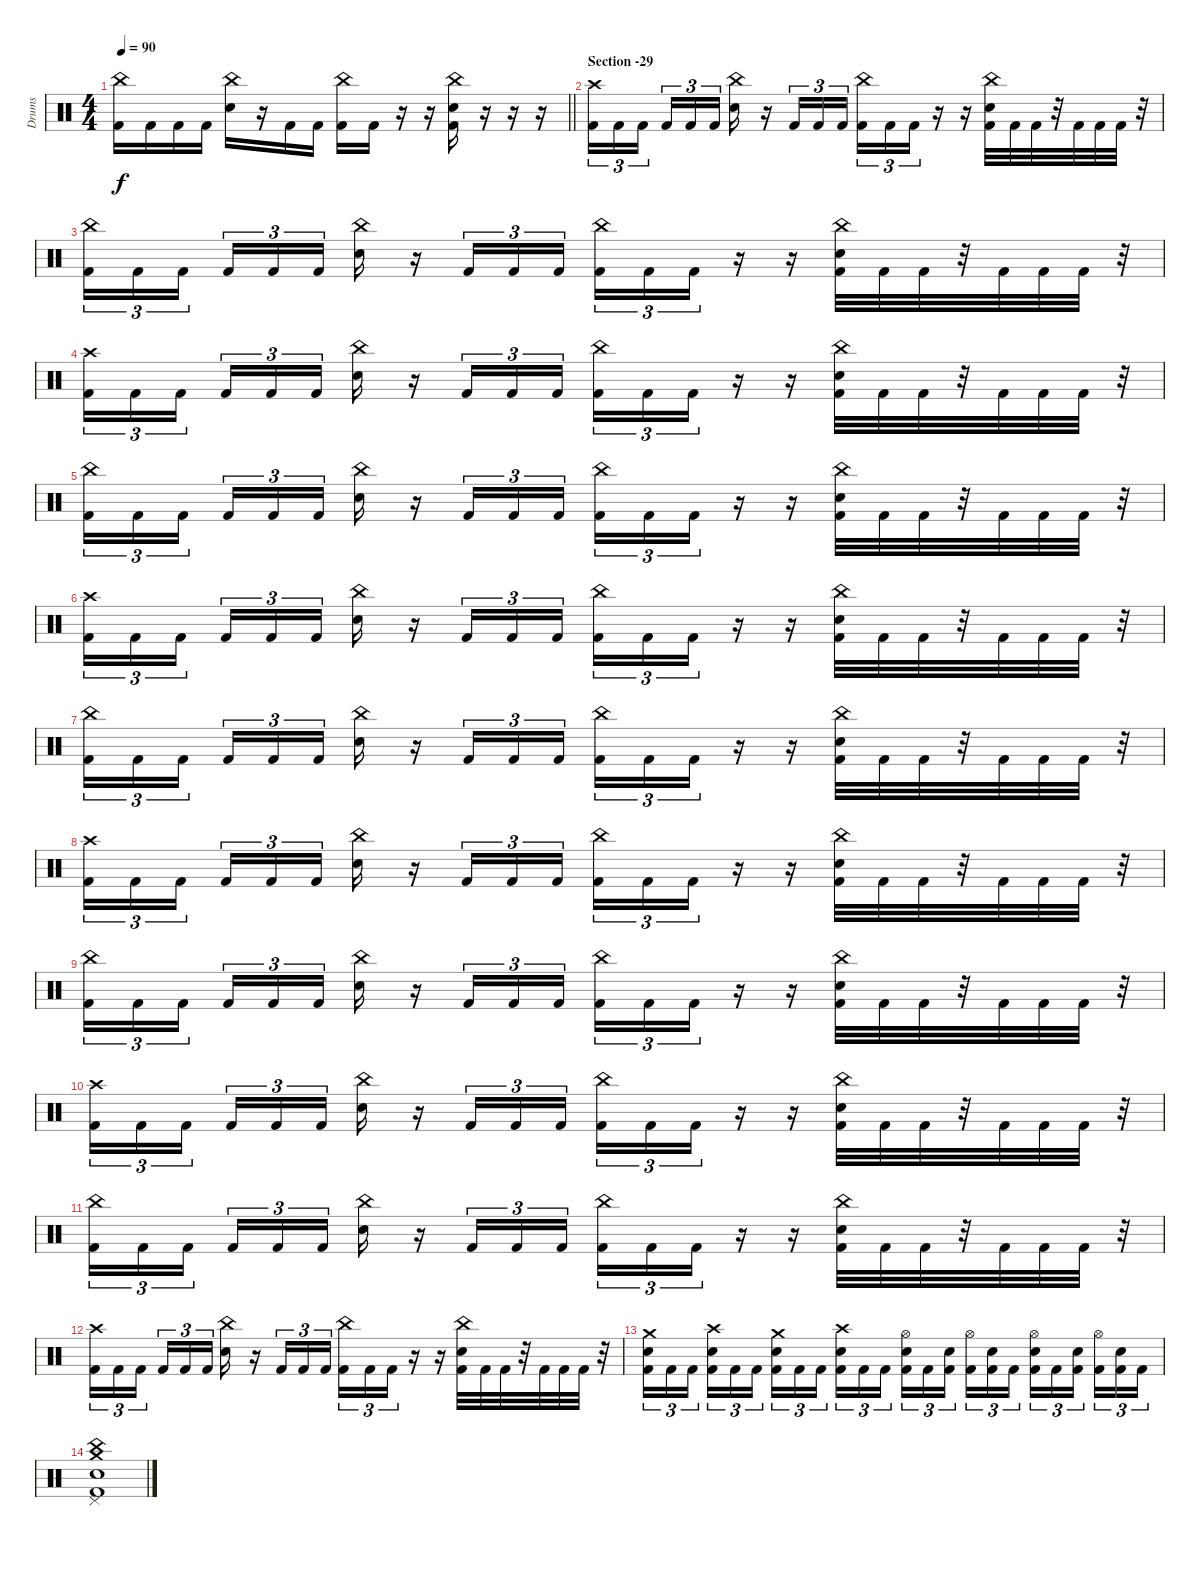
\track ("Drums" "Drums") {instrument percussion}
\staff {score}
\articulation defaults
\ts (4 4)
\tempo 90
\clef neutral
\barLineRight lightlight
\ks c
("China (hit)" "Kick (hit) 2").16{dy f} "Kick (hit) 2".16 "Kick (hit) 2".16 "Kick (hit) 2".16 ("China (hit)" "Snare (hit) 2").16 r.16 "Kick (hit) 2".16 "Kick (hit) 2".16 ("China (hit)" "Kick (hit) 2").16 "Kick (hit) 2".16 r.16 r.16 ("China (hit)" "Snare (hit) 2" "Kick (hit) 2").16 r.16 r.16 r.16 |
\section ("" "Section -29")
("Crash high (hit)" "Kick (hit) 2").16{tu (3 2)} "Kick (hit) 2".16{tu (3 2)} "Kick (hit) 2".16{tu (3 2) beam splitsecondary} "Kick (hit) 2".16{tu (3 2)} "Kick (hit) 2".16{tu (3 2)} "Kick (hit) 2".16{tu (3 2)} ("China (hit)" "Snare (hit) 2").16 r.16 "Kick (hit) 2".16{tu (3 2)} "Kick (hit) 2".16{tu (3 2)} "Kick (hit) 2".16{tu (3 2)} ("China (hit)" "Kick (hit) 2").16{tu (3 2)} "Kick (hit) 2".16{tu (3 2)} "Kick (hit) 2".16{tu (3 2)} r.16 r.16 ("China (hit)" "Snare (hit) 2" "Kick (hit) 2").32 "Kick (hit) 2".32 "Kick (hit) 2".32 r.32 "Kick (hit) 2".32 "Kick (hit) 2".32 "Kick (hit) 2".32 r.32 |
("China (hit)" "Kick (hit) 2").16{tu (3 2)} "Kick (hit) 2".16{tu (3 2)} "Kick (hit) 2".16{tu (3 2) beam splitsecondary} "Kick (hit) 2".16{tu (3 2)} "Kick (hit) 2".16{tu (3 2)} "Kick (hit) 2".16{tu (3 2)} ("China (hit)" "Snare (hit) 2").16 r.16 "Kick (hit) 2".16{tu (3 2)} "Kick (hit) 2".16{tu (3 2)} "Kick (hit) 2".16{tu (3 2)} ("China (hit)" "Kick (hit) 2").16{tu (3 2)} "Kick (hit) 2".16{tu (3 2)} "Kick (hit) 2".16{tu (3 2)} r.16 r.16 ("China (hit)" "Snare (hit) 2" "Kick (hit) 2").32 "Kick (hit) 2".32 "Kick (hit) 2".32 r.32 "Kick (hit) 2".32 "Kick (hit) 2".32 "Kick (hit) 2".32 r.32 |
("Crash high (hit)" "Kick (hit) 2").16{tu (3 2)} "Kick (hit) 2".16{tu (3 2)} "Kick (hit) 2".16{tu (3 2) beam splitsecondary} "Kick (hit) 2".16{tu (3 2)} "Kick (hit) 2".16{tu (3 2)} "Kick (hit) 2".16{tu (3 2)} ("China (hit)" "Snare (hit) 2").16 r.16 "Kick (hit) 2".16{tu (3 2)} "Kick (hit) 2".16{tu (3 2)} "Kick (hit) 2".16{tu (3 2)} ("China (hit)" "Kick (hit) 2").16{tu (3 2)} "Kick (hit) 2".16{tu (3 2)} "Kick (hit) 2".16{tu (3 2)} r.16 r.16 ("China (hit)" "Snare (hit) 2" "Kick (hit) 2").32 "Kick (hit) 2".32 "Kick (hit) 2".32 r.32 "Kick (hit) 2".32 "Kick (hit) 2".32 "Kick (hit) 2".32 r.32 |
("China (hit)" "Kick (hit) 2").16{tu (3 2)} "Kick (hit) 2".16{tu (3 2)} "Kick (hit) 2".16{tu (3 2) beam splitsecondary} "Kick (hit) 2".16{tu (3 2)} "Kick (hit) 2".16{tu (3 2)} "Kick (hit) 2".16{tu (3 2)} ("China (hit)" "Snare (hit) 2").16 r.16 "Kick (hit) 2".16{tu (3 2)} "Kick (hit) 2".16{tu (3 2)} "Kick (hit) 2".16{tu (3 2)} ("China (hit)" "Kick (hit) 2").16{tu (3 2)} "Kick (hit) 2".16{tu (3 2)} "Kick (hit) 2".16{tu (3 2)} r.16 r.16 ("China (hit)" "Snare (hit) 2" "Kick (hit) 2").32 "Kick (hit) 2".32 "Kick (hit) 2".32 r.32 "Kick (hit) 2".32 "Kick (hit) 2".32 "Kick (hit) 2".32 r.32 |
("Crash high (hit)" "Kick (hit) 2").16{tu (3 2)} "Kick (hit) 2".16{tu (3 2)} "Kick (hit) 2".16{tu (3 2) beam splitsecondary} "Kick (hit) 2".16{tu (3 2)} "Kick (hit) 2".16{tu (3 2)} "Kick (hit) 2".16{tu (3 2)} ("China (hit)" "Snare (hit) 2").16 r.16 "Kick (hit) 2".16{tu (3 2)} "Kick (hit) 2".16{tu (3 2)} "Kick (hit) 2".16{tu (3 2)} ("China (hit)" "Kick (hit) 2").16{tu (3 2)} "Kick (hit) 2".16{tu (3 2)} "Kick (hit) 2".16{tu (3 2)} r.16 r.16 ("China (hit)" "Snare (hit) 2" "Kick (hit) 2").32 "Kick (hit) 2".32 "Kick (hit) 2".32 r.32 "Kick (hit) 2".32 "Kick (hit) 2".32 "Kick (hit) 2".32 r.32 |
("China (hit)" "Kick (hit) 2").16{tu (3 2)} "Kick (hit) 2".16{tu (3 2)} "Kick (hit) 2".16{tu (3 2) beam splitsecondary} "Kick (hit) 2".16{tu (3 2)} "Kick (hit) 2".16{tu (3 2)} "Kick (hit) 2".16{tu (3 2)} ("China (hit)" "Snare (hit) 2").16 r.16 "Kick (hit) 2".16{tu (3 2)} "Kick (hit) 2".16{tu (3 2)} "Kick (hit) 2".16{tu (3 2)} ("China (hit)" "Kick (hit) 2").16{tu (3 2)} "Kick (hit) 2".16{tu (3 2)} "Kick (hit) 2".16{tu (3 2)} r.16 r.16 ("China (hit)" "Snare (hit) 2" "Kick (hit) 2").32 "Kick (hit) 2".32 "Kick (hit) 2".32 r.32 "Kick (hit) 2".32 "Kick (hit) 2".32 "Kick (hit) 2".32 r.32 |
("Crash high (hit)" "Kick (hit) 2").16{tu (3 2)} "Kick (hit) 2".16{tu (3 2)} "Kick (hit) 2".16{tu (3 2) beam splitsecondary} "Kick (hit) 2".16{tu (3 2)} "Kick (hit) 2".16{tu (3 2)} "Kick (hit) 2".16{tu (3 2)} ("China (hit)" "Snare (hit) 2").16 r.16 "Kick (hit) 2".16{tu (3 2)} "Kick (hit) 2".16{tu (3 2)} "Kick (hit) 2".16{tu (3 2)} ("China (hit)" "Kick (hit) 2").16{tu (3 2)} "Kick (hit) 2".16{tu (3 2)} "Kick (hit) 2".16{tu (3 2)} r.16 r.16 ("China (hit)" "Snare (hit) 2" "Kick (hit) 2").32 "Kick (hit) 2".32 "Kick (hit) 2".32 r.32 "Kick (hit) 2".32 "Kick (hit) 2".32 "Kick (hit) 2".32 r.32 |
("China (hit)" "Kick (hit) 2").16{tu (3 2)} "Kick (hit) 2".16{tu (3 2)} "Kick (hit) 2".16{tu (3 2) beam splitsecondary} "Kick (hit) 2".16{tu (3 2)} "Kick (hit) 2".16{tu (3 2)} "Kick (hit) 2".16{tu (3 2)} ("China (hit)" "Snare (hit) 2").16 r.16 "Kick (hit) 2".16{tu (3 2)} "Kick (hit) 2".16{tu (3 2)} "Kick (hit) 2".16{tu (3 2)} ("China (hit)" "Kick (hit) 2").16{tu (3 2)} "Kick (hit) 2".16{tu (3 2)} "Kick (hit) 2".16{tu (3 2)} r.16 r.16 ("China (hit)" "Snare (hit) 2" "Kick (hit) 2").32 "Kick (hit) 2".32 "Kick (hit) 2".32 r.32 "Kick (hit) 2".32 "Kick (hit) 2".32 "Kick (hit) 2".32 r.32 |
("Crash high (hit)" "Kick (hit) 2").16{tu (3 2)} "Kick (hit) 2".16{tu (3 2)} "Kick (hit) 2".16{tu (3 2) beam splitsecondary} "Kick (hit) 2".16{tu (3 2)} "Kick (hit) 2".16{tu (3 2)} "Kick (hit) 2".16{tu (3 2)} ("China (hit)" "Snare (hit) 2").16 r.16 "Kick (hit) 2".16{tu (3 2)} "Kick (hit) 2".16{tu (3 2)} "Kick (hit) 2".16{tu (3 2)} ("China (hit)" "Kick (hit) 2").16{tu (3 2)} "Kick (hit) 2".16{tu (3 2)} "Kick (hit) 2".16{tu (3 2)} r.16 r.16 ("China (hit)" "Snare (hit) 2" "Kick (hit) 2").32 "Kick (hit) 2".32 "Kick (hit) 2".32 r.32 "Kick (hit) 2".32 "Kick (hit) 2".32 "Kick (hit) 2".32 r.32 |
("China (hit)" "Kick (hit) 2").16{tu (3 2)} "Kick (hit) 2".16{tu (3 2)} "Kick (hit) 2".16{tu (3 2) beam splitsecondary} "Kick (hit) 2".16{tu (3 2)} "Kick (hit) 2".16{tu (3 2)} "Kick (hit) 2".16{tu (3 2)} ("China (hit)" "Snare (hit) 2").16 r.16 "Kick (hit) 2".16{tu (3 2)} "Kick (hit) 2".16{tu (3 2)} "Kick (hit) 2".16{tu (3 2)} ("China (hit)" "Kick (hit) 2").16{tu (3 2)} "Kick (hit) 2".16{tu (3 2)} "Kick (hit) 2".16{tu (3 2)} r.16 r.16 ("China (hit)" "Snare (hit) 2" "Kick (hit) 2").32 "Kick (hit) 2".32 "Kick (hit) 2".32 r.32 "Kick (hit) 2".32 "Kick (hit) 2".32 "Kick (hit) 2".32 r.32 |
("Crash high (hit)" "Kick (hit) 2").16{tu (3 2)} "Kick (hit) 2".16{tu (3 2)} "Kick (hit) 2".16{tu (3 2) beam splitsecondary} "Kick (hit) 2".16{tu (3 2)} "Kick (hit) 2".16{tu (3 2)} "Kick (hit) 2".16{tu (3 2)} ("China (hit)" "Snare (hit) 2").16 r.16 "Kick (hit) 2".16{tu (3 2)} "Kick (hit) 2".16{tu (3 2)} "Kick (hit) 2".16{tu (3 2)} ("China (hit)" "Kick (hit) 2").16{tu (3 2)} "Kick (hit) 2".16{tu (3 2)} "Kick (hit) 2".16{tu (3 2)} r.16 r.16 ("China (hit)" "Snare (hit) 2" "Kick (hit) 2").32 "Kick (hit) 2".32 "Kick (hit) 2".32 r.32 "Kick (hit) 2".32 "Kick (hit) 2".32 "Kick (hit) 2".32 r.32 |
("Crash medium (hit)" "Snare (hit) 2" "Kick (hit) 2").16{tu (3 2)} "Kick (hit) 2".16{tu (3 2)} "Kick (hit) 2".16{tu (3 2) beam splitsecondary} ("Crash high (hit)" "Snare (hit) 2" "Kick (hit) 2").16{tu (3 2)} "Kick (hit) 2".16{tu (3 2)} "Kick (hit) 2".16{tu (3 2)} ("Crash medium (hit)" "Snare (hit) 2" "Kick (hit) 2").16{tu (3 2)} "Kick (hit) 2".16{tu (3 2)} "Kick (hit) 2".16{tu (3 2) beam splitsecondary} ("Crash high (hit)" "Snare (hit) 2" "Kick (hit) 2").16{tu (3 2)} "Kick (hit) 2".16{tu (3 2)} "Kick (hit) 2".16{tu (3 2)} ("Hi-Hat (open)" "Snare (hit) 2" "Kick (hit) 2").16{tu (3 2)} "Kick (hit) 2".16{tu (3 2)} ("Snare (hit) 2" "Kick (hit) 2").16{tu (3 2) beam splitsecondary} ("Hi-Hat (open)" "Kick (hit) 2").16{tu (3 2)} ("Snare (hit) 2" "Kick (hit) 2").16{tu (3 2)} "Kick (hit) 2".16{tu (3 2)} ("Hi-Hat (open)" "Snare (hit) 2" "Kick (hit) 2").16{tu (3 2)} "Kick (hit) 2".16{tu (3 2)} ("Snare (hit) 2" "Kick (hit) 2").16{tu (3 2) beam splitsecondary} ("Hi-Hat (open)" "Kick (hit) 2").16{tu (3 2)} ("Snare (hit) 2" "Kick (hit) 2").16{tu (3 2)} "Kick (hit) 2".16{tu (3 2)} |
("Crash medium (hit)" "China (hit)" "Pedal Hi-Hat (hit)" "Snare (hit) 2" "Kick (hit) 2").1
